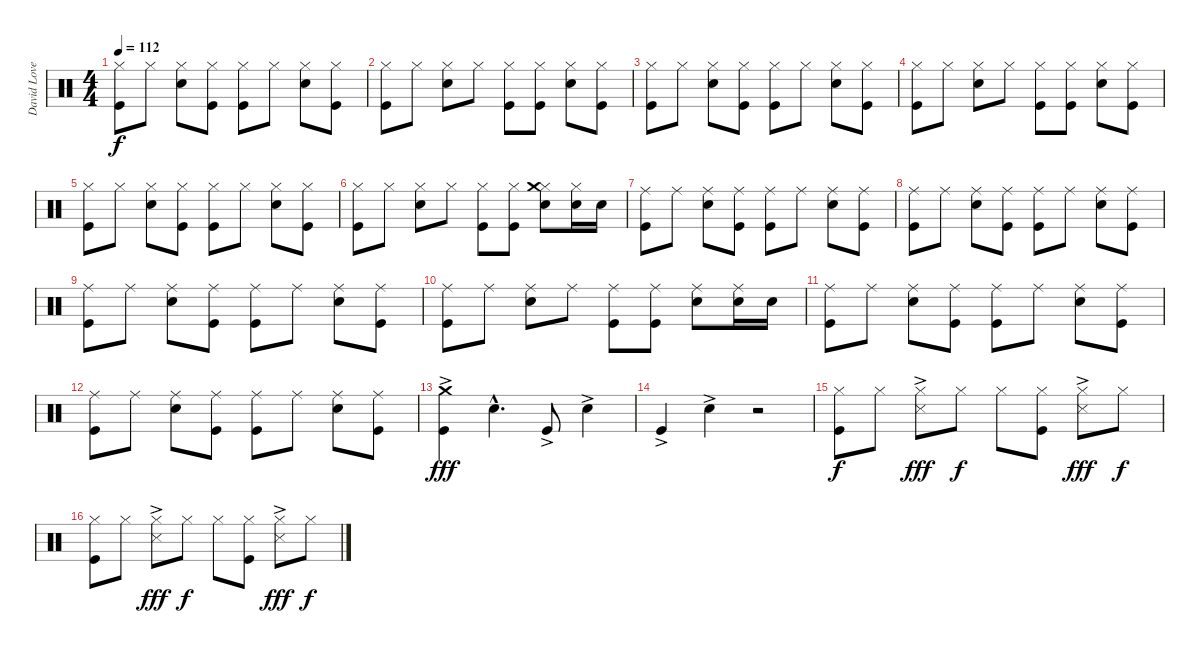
\track ("David Lovering" "David Love") {instrument percussion}
\staff {score}
\articulation defaults
\ts (4 4)
\tempo 112
\clef neutral
\ks c
("Hi-Hat (closed)" "Kick (hit)").8{dy f} "Hi-Hat (closed)".8 ("Hi-Hat (closed)" "Snare (hit) 2").8 ("Hi-Hat (closed)" "Kick (hit)").8 ("Hi-Hat (closed)" "Kick (hit)").8 "Hi-Hat (closed)".8 ("Hi-Hat (closed)" "Snare (hit) 2").8 ("Hi-Hat (closed)" "Kick (hit)").8 |
("Hi-Hat (closed)" "Kick (hit)").8 "Hi-Hat (closed)".8 ("Hi-Hat (closed)" "Snare (hit) 2").8 "Hi-Hat (closed)".8 ("Hi-Hat (closed)" "Kick (hit)").8 ("Hi-Hat (closed)" "Kick (hit)").8 ("Hi-Hat (closed)" "Snare (hit) 2").8 ("Hi-Hat (closed)" "Kick (hit)").8 |
("Hi-Hat (closed)" "Kick (hit)").8 "Hi-Hat (closed)".8 ("Hi-Hat (closed)" "Snare (hit) 2").8 ("Hi-Hat (closed)" "Kick (hit)").8 ("Hi-Hat (closed)" "Kick (hit)").8 "Hi-Hat (closed)".8 ("Hi-Hat (closed)" "Snare (hit) 2").8 ("Hi-Hat (closed)" "Kick (hit)").8 |
("Hi-Hat (closed)" "Kick (hit)").8 "Hi-Hat (closed)".8 ("Hi-Hat (closed)" "Snare (hit) 2").8 "Hi-Hat (closed)".8 ("Hi-Hat (closed)" "Kick (hit)").8 ("Hi-Hat (closed)" "Kick (hit)").8 ("Hi-Hat (closed)" "Snare (hit) 2").8 ("Hi-Hat (closed)" "Kick (hit)").8 |
("Hi-Hat (closed)" "Kick (hit)").8 "Hi-Hat (closed)".8 ("Hi-Hat (closed)" "Snare (hit) 2").8 ("Hi-Hat (closed)" "Kick (hit)").8 ("Hi-Hat (closed)" "Kick (hit)").8 "Hi-Hat (closed)".8 ("Hi-Hat (closed)" "Snare (hit) 2").8 ("Hi-Hat (closed)" "Kick (hit)").8 |
("Hi-Hat (closed)" "Kick (hit)").8 "Hi-Hat (closed)".8 ("Hi-Hat (closed)" "Snare (hit) 2").8 "Hi-Hat (closed)".8 ("Hi-Hat (closed)" "Kick (hit)").8 ("Hi-Hat (closed)" "Kick (hit)").8 ("Hi-Hat (closed)" "Crash medium (hit)" "Snare (hit) 2").8 ("Hi-Hat (closed)" "Snare (hit) 2").16 "Snare (hit) 2".16 |
("Ride (middle)" "Kick (hit)").8 "Ride (middle)".8 ("Ride (middle)" "Snare (hit) 2").8 ("Ride (middle)" "Kick (hit)").8 ("Ride (middle)" "Kick (hit)").8 "Ride (middle)".8 ("Ride (middle)" "Snare (hit) 2").8 ("Ride (middle)" "Kick (hit)").8 |
("Ride (middle)" "Kick (hit)").8 "Ride (middle)".8 ("Ride (middle)" "Snare (hit) 2").8 ("Ride (middle)" "Kick (hit)").8 ("Ride (middle)" "Kick (hit)").8 "Ride (middle)".8 ("Ride (middle)" "Snare (hit) 2").8 ("Ride (middle)" "Kick (hit)").8 |
("Ride (middle)" "Kick (hit)").8 "Ride (middle)".8 ("Ride (middle)" "Snare (hit) 2").8 ("Ride (middle)" "Kick (hit)").8 ("Ride (middle)" "Kick (hit)").8 "Ride (middle)".8 ("Ride (middle)" "Snare (hit) 2").8 ("Ride (middle)" "Kick (hit)").8 |
("Ride (middle)" "Kick (hit)").8 "Ride (middle)".8 ("Ride (middle)" "Snare (hit) 2").8 "Ride (middle)".8 ("Ride (middle)" "Kick (hit)").8 ("Ride (middle)" "Kick (hit)").8 ("Ride (middle)" "Snare (hit) 2").8 ("Ride (middle)" "Snare (hit) 2").16 "Snare (hit) 2".16 |
("Ride (middle)" "Kick (hit)").8 "Ride (middle)".8 ("Ride (middle)" "Snare (hit) 2").8 ("Ride (middle)" "Kick (hit)").8 ("Ride (middle)" "Kick (hit)").8 "Ride (middle)".8 ("Ride (middle)" "Snare (hit) 2").8 ("Ride (middle)" "Kick (hit)").8 |
("Ride (middle)" "Kick (hit)").8 "Ride (middle)".8 ("Ride (middle)" "Snare (hit) 2").8 ("Ride (middle)" "Kick (hit)").8 ("Ride (middle)" "Kick (hit)").8 "Ride (middle)".8 ("Ride (middle)" "Snare (hit) 2").8 ("Ride (middle)" "Kick (hit)").8 |
("Crash medium (hit)"{ac} "Kick (hit)").4{dy fff} "Snare (hit) 2"{hac}.4{d} "Kick (hit)"{ac}.8 "Snare (hit) 2"{ac}.4 |
"Kick (hit)"{ac}.4 "Snare (hit) 2"{ac}.4 r.2 |
\section ("" "")
("Hi-Hat (closed)" "Kick (hit)").8{dy f} "Hi-Hat (closed)".8 ("Hi-Hat (closed)" "Snare (side stick) 3"{ac}).8{dy fff} "Hi-Hat (closed)".8{dy f} "Hi-Hat (closed)".8 ("Hi-Hat (closed)" "Kick (hit)").8 ("Hi-Hat (closed)" "Snare (side stick) 3"{ac}).8{dy fff} "Hi-Hat (closed)".8{dy f} |
("Hi-Hat (closed)" "Kick (hit)").8 "Hi-Hat (closed)".8 ("Hi-Hat (closed)" "Snare (side stick) 3"{ac}).8{dy fff} "Hi-Hat (closed)".8{dy f} "Hi-Hat (closed)".8 ("Hi-Hat (closed)" "Kick (hit)").8 ("Hi-Hat (closed)" "Snare (side stick) 3"{ac}).8{dy fff} "Hi-Hat (closed)".8{dy f}
